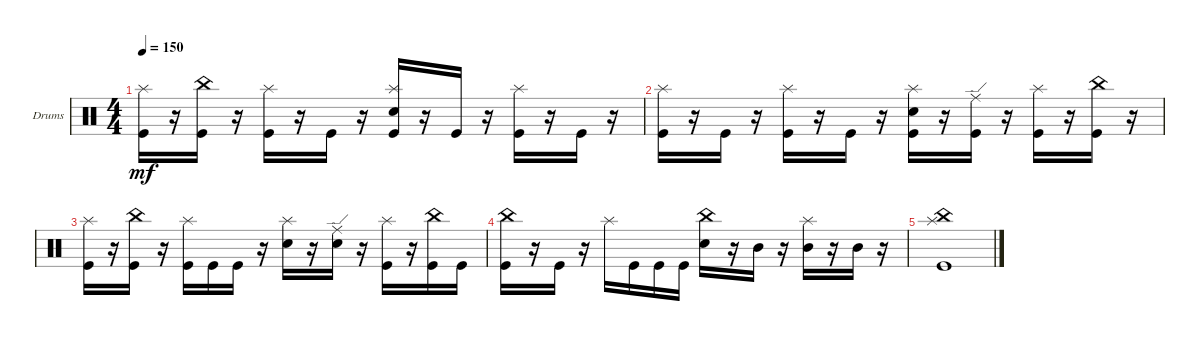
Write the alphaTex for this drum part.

\defaultSystemsLayout 4
\bracketExtendMode groupsimilarinstruments
\firstSystemTrackNameOrientation horizontal
\otherSystemsTrackNameOrientation horizontal
\track ("Drumkit" "Drums") {instrument percussion}
\staff {score}
\articulation defaults
\ts (4 4)
\tempo 150
\clef neutral
\ks c
("Kick (hit)" "Splash (hit)").16{dy mf} r.16 ("Kick (hit)" "China (hit)").16 r.16 ("Kick (hit)" "Splash (hit)").16 r.16 "Kick (hit)".16 r.16 ("Kick (hit)" "Snare (hit) 2" "Splash (hit)").16 r.16 "Kick (hit)".16 r.16 ("Kick (hit)" "Splash (hit)").16 r.16 "Kick (hit)".16 r.16 |
("Kick (hit)" "Splash (hit)").16 r.16 "Kick (hit)".16 r.16 ("Kick (hit)" "Splash (hit)").16 r.16 "Kick (hit)".16 r.16 ("Kick (hit)" "Snare (hit) 2" "Splash (hit)").16 r.16 ("Kick (hit)" "Ride (edge)").16 r.16 ("Kick (hit)" "Splash (hit)").16 r.16 ("Kick (hit)" "China (hit)").16 r.16 |
("Kick (hit)" "Splash (hit)").16 r.16 ("Kick (hit)" "China (hit)").16 r.16 ("Kick (hit)" "Splash (hit)").16 "Kick (hit)".16 "Kick (hit)".16 r.16 ("Snare (hit) 2" "Splash (hit)").16 r.16 ("Ride (edge)" "Snare (hit) 2").16 r.16 ("Kick (hit)" "Splash (hit)").16 r.16 ("Kick (hit)" "China (hit)").16 "Kick (hit)".16 |
("Kick (hit)" "China (hit)").16 r.16 "Kick (hit)".16 r.16 "Splash (hit)".16 "Kick (hit)".16 "Kick (hit)".16 "Kick (hit)".16 ("Snare (hit) 2" "China (hit)").16 r.16 "Mid Tom (hit)".16 r.16 ("Splash (hit)" "Mid Tom (hit)").16 r.16 "Mid Tom (hit)".16 r.16 |
("Splash (hit)" "Kick (hit)" "China (hit)").1
